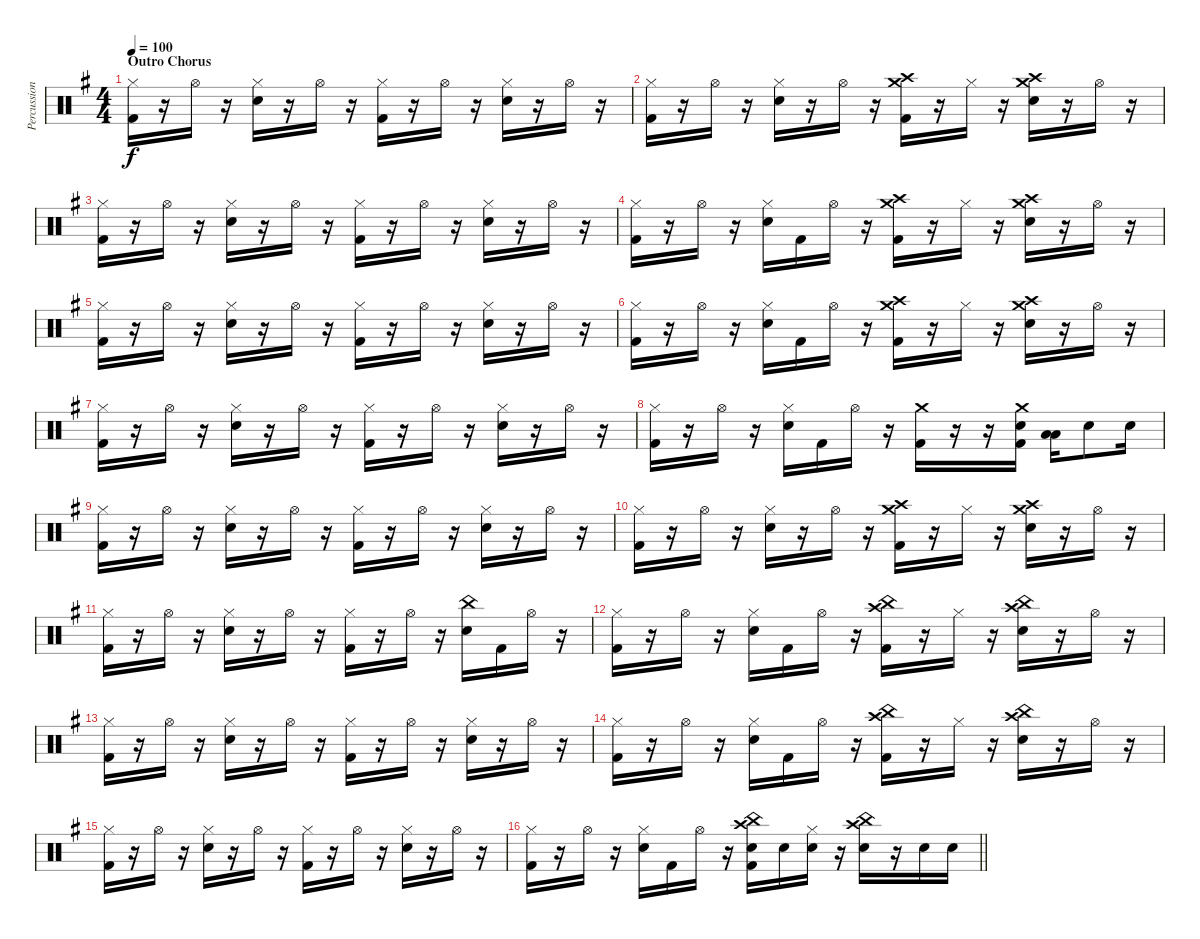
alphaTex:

\track ("Percussion" "Percussion") {instrument percussion}
\staff {score}
\articulation defaults
\ts (4 4)
\section ("" "Outro Chorus")
\tempo 100
\clef neutral
\ks g
("Hi-Hat (closed)" "Kick (hit) 2").16{dy f} r.16 "Hi-Hat (open)".16 r.16 ("Hi-Hat (closed)" "Snare (hit) 2").16 r.16 "Hi-Hat (open)".16 r.16 ("Hi-Hat (closed)" "Kick (hit) 2").16 r.16 "Hi-Hat (open)".16 r.16 ("Hi-Hat (closed)" "Snare (hit) 2").16 r.16 "Hi-Hat (open)".16 r.16 |
("Hi-Hat (closed)" "Kick (hit) 2").16 r.16 "Hi-Hat (open)".16 r.16 ("Hi-Hat (closed)" "Snare (hit) 2").16 r.16 "Hi-Hat (open)".16 r.16 ("Crash medium (hit)" "Crash high (hit)" "Kick (hit) 2").16 r.16 "Hi-Hat (closed)".16 r.16 ("Crash medium (hit)" "Crash high (hit)" "Snare (hit) 2").16 r.16 "Hi-Hat (open)".16 r.16 |
("Hi-Hat (closed)" "Kick (hit) 2").16 r.16 "Hi-Hat (open)".16 r.16 ("Hi-Hat (closed)" "Snare (hit) 2").16 r.16 "Hi-Hat (open)".16 r.16 ("Hi-Hat (closed)" "Kick (hit) 2").16 r.16 "Hi-Hat (open)".16 r.16 ("Hi-Hat (closed)" "Snare (hit) 2").16 r.16 "Hi-Hat (open)".16 r.16 |
("Hi-Hat (closed)" "Kick (hit) 2").16 r.16 "Hi-Hat (open)".16 r.16 ("Hi-Hat (closed)" "Snare (hit) 2").16 "Kick (hit) 2".16 "Hi-Hat (open)".16 r.16 ("Crash medium (hit)" "Crash high (hit)" "Kick (hit) 2").16 r.16 "Hi-Hat (closed)".16 r.16 ("Crash medium (hit)" "Crash high (hit)" "Snare (hit) 2").16 r.16 "Hi-Hat (open)".16 r.16 |
("Hi-Hat (closed)" "Kick (hit) 2").16 r.16 "Hi-Hat (open)".16 r.16 ("Hi-Hat (closed)" "Snare (hit) 2").16 r.16 "Hi-Hat (open)".16 r.16 ("Hi-Hat (closed)" "Kick (hit) 2").16 r.16 "Hi-Hat (open)".16 r.16 ("Hi-Hat (closed)" "Snare (hit) 2").16 r.16 "Hi-Hat (open)".16 r.16 |
("Hi-Hat (closed)" "Kick (hit) 2").16 r.16 "Hi-Hat (open)".16 r.16 ("Hi-Hat (closed)" "Snare (hit) 2").16 "Kick (hit) 2".16 "Hi-Hat (open)".16 r.16 ("Crash medium (hit)" "Crash high (hit)" "Kick (hit) 2").16 r.16 "Hi-Hat (closed)".16 r.16 ("Crash medium (hit)" "Crash high (hit)" "Snare (hit) 2").16 r.16 "Hi-Hat (open)".16 r.16 |
("Hi-Hat (closed)" "Kick (hit) 2").16 r.16 "Hi-Hat (open)".16 r.16 ("Hi-Hat (closed)" "Snare (hit) 2").16 r.16 "Hi-Hat (open)".16 r.16 ("Hi-Hat (closed)" "Kick (hit) 2").16 r.16 "Hi-Hat (open)".16 r.16 ("Hi-Hat (closed)" "Snare (hit) 2").16 r.16 "Hi-Hat (open)".16 r.16 |
("Hi-Hat (closed)" "Kick (hit) 2").16 r.16 "Hi-Hat (open)".16 r.16 ("Hi-Hat (closed)" "Snare (hit) 2").16 "Kick (hit) 2".16 "Hi-Hat (open)".16 r.16 ("Crash medium (hit)" "Kick (hit) 2").16 r.16 r.16 ("Crash medium (hit)" "Snare (hit) 2" "Kick (hit) 2").16 ("Low Tom (hit)" "Low Tom (hit)").16 "Snare (hit) 2".8 "Snare (hit) 2".16 |
("Hi-Hat (closed)" "Kick (hit) 2").16 r.16 "Hi-Hat (open)".16 r.16 ("Hi-Hat (closed)" "Snare (hit) 2").16 r.16 "Hi-Hat (open)".16 r.16 ("Hi-Hat (closed)" "Kick (hit) 2").16 r.16 "Hi-Hat (open)".16 r.16 ("Hi-Hat (closed)" "Snare (hit) 2").16 r.16 "Hi-Hat (open)".16 r.16 |
("Hi-Hat (closed)" "Kick (hit) 2").16 r.16 "Hi-Hat (open)".16 r.16 ("Hi-Hat (closed)" "Snare (hit) 2").16 r.16 "Hi-Hat (open)".16 r.16 ("Crash medium (hit)" "Crash high (hit)" "Kick (hit) 2").16 r.16 "Hi-Hat (closed)".16 r.16 ("Crash medium (hit)" "Crash high (hit)" "Snare (hit) 2").16 r.16 "Hi-Hat (open)".16 r.16 |
("Hi-Hat (closed)" "Kick (hit) 2").16 r.16 "Hi-Hat (open)".16 r.16 ("Hi-Hat (closed)" "Snare (hit) 2").16 r.16 "Hi-Hat (open)".16 r.16 ("Hi-Hat (closed)" "Kick (hit) 2").16 r.16 "Hi-Hat (open)".16 r.16 ("China (hit)" "Snare (hit) 2").16 "Kick (hit) 2".16 "Hi-Hat (open)".16 r.16 |
("Hi-Hat (closed)" "Kick (hit) 2").16 r.16 "Hi-Hat (open)".16 r.16 ("Hi-Hat (closed)" "Snare (hit) 2").16 "Kick (hit) 2".16 "Hi-Hat (open)".16 r.16 ("China (hit)" "Crash high (hit)" "Kick (hit) 2").16 r.16 "Hi-Hat (closed)".16 r.16 ("China (hit)" "Crash high (hit)" "Snare (hit) 2").16 r.16 "Hi-Hat (open)".16 r.16 |
("Hi-Hat (closed)" "Kick (hit) 2").16 r.16 "Hi-Hat (open)".16 r.16 ("Hi-Hat (closed)" "Snare (hit) 2").16 r.16 "Hi-Hat (open)".16 r.16 ("Hi-Hat (closed)" "Kick (hit) 2").16 r.16 "Hi-Hat (open)".16 r.16 ("Hi-Hat (closed)" "Snare (hit) 2").16 r.16 "Hi-Hat (open)".16 r.16 |
("Hi-Hat (closed)" "Kick (hit) 2").16 r.16 "Hi-Hat (open)".16 r.16 ("Hi-Hat (closed)" "Snare (hit) 2").16 "Kick (hit) 2".16 "Hi-Hat (open)".16 r.16 ("China (hit)" "Crash high (hit)" "Kick (hit) 2").16 r.16 "Hi-Hat (closed)".16 r.16 ("China (hit)" "Crash high (hit)" "Snare (hit) 2").16 r.16 "Hi-Hat (open)".16 r.16 |
("Hi-Hat (closed)" "Kick (hit) 2").16 r.16 "Hi-Hat (open)".16 r.16 ("Hi-Hat (closed)" "Snare (hit) 2").16 r.16 "Hi-Hat (open)".16 r.16 ("Hi-Hat (closed)" "Kick (hit) 2").16 r.16 "Hi-Hat (open)".16 r.16 ("Hi-Hat (closed)" "Snare (hit) 2").16 r.16 "Hi-Hat (open)".16 r.16 |
\barLineRight lightlight
("Hi-Hat (closed)" "Kick (hit) 2").16 r.16 "Hi-Hat (open)".16 r.16 ("Hi-Hat (closed)" "Snare (hit) 2").16 "Kick (hit) 2".16 "Hi-Hat (open)".16 r.16 ("China (hit)" "Crash high (hit)" "Snare (hit) 2" "Kick (hit) 2").16 "Snare (hit) 2".16 ("Hi-Hat (closed)" "Snare (hit) 2").16 r.16 ("China (hit)" "Crash high (hit)" "Snare (hit) 2").16 r.16 "Snare (hit) 2".16 "Snare (hit) 2".16
